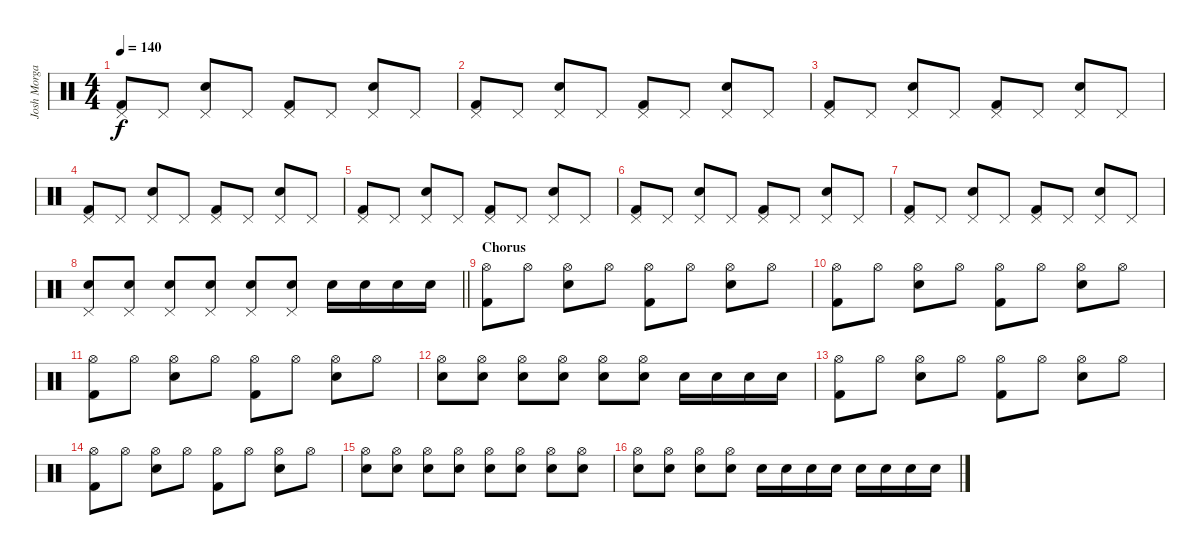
\track ("Josh Morgan" "Josh Morga") {instrument percussion}
\staff {score}
\articulation defaults
\ts (4 4)
\tempo 140
\clef neutral
\ks c
("Pedal Hi-Hat (hit)" "Kick (hit) 2").8{dy f} "Pedal Hi-Hat (hit)".8 ("Pedal Hi-Hat (hit)" "Electric Snare (hit)").8 "Pedal Hi-Hat (hit)".8 ("Pedal Hi-Hat (hit)" "Kick (hit) 2").8 "Pedal Hi-Hat (hit)".8 ("Pedal Hi-Hat (hit)" "Electric Snare (hit)").8 "Pedal Hi-Hat (hit)".8 |
("Pedal Hi-Hat (hit)" "Kick (hit) 2").8 "Pedal Hi-Hat (hit)".8 ("Pedal Hi-Hat (hit)" "Electric Snare (hit)").8 "Pedal Hi-Hat (hit)".8 ("Pedal Hi-Hat (hit)" "Kick (hit) 2").8 "Pedal Hi-Hat (hit)".8 ("Pedal Hi-Hat (hit)" "Electric Snare (hit)").8 "Pedal Hi-Hat (hit)".8 |
("Pedal Hi-Hat (hit)" "Kick (hit) 2").8 "Pedal Hi-Hat (hit)".8 ("Pedal Hi-Hat (hit)" "Electric Snare (hit)").8 "Pedal Hi-Hat (hit)".8 ("Pedal Hi-Hat (hit)" "Kick (hit) 2").8 "Pedal Hi-Hat (hit)".8 ("Pedal Hi-Hat (hit)" "Electric Snare (hit)").8 "Pedal Hi-Hat (hit)".8 |
("Pedal Hi-Hat (hit)" "Kick (hit) 2").8 "Pedal Hi-Hat (hit)".8 ("Pedal Hi-Hat (hit)" "Electric Snare (hit)").8 "Pedal Hi-Hat (hit)".8 ("Pedal Hi-Hat (hit)" "Kick (hit) 2").8 "Pedal Hi-Hat (hit)".8 ("Pedal Hi-Hat (hit)" "Electric Snare (hit)").8 "Pedal Hi-Hat (hit)".8 |
("Pedal Hi-Hat (hit)" "Kick (hit) 2").8 "Pedal Hi-Hat (hit)".8 ("Pedal Hi-Hat (hit)" "Electric Snare (hit)").8 "Pedal Hi-Hat (hit)".8 ("Pedal Hi-Hat (hit)" "Kick (hit) 2").8 "Pedal Hi-Hat (hit)".8 ("Pedal Hi-Hat (hit)" "Electric Snare (hit)").8 "Pedal Hi-Hat (hit)".8 |
("Pedal Hi-Hat (hit)" "Kick (hit) 2").8 "Pedal Hi-Hat (hit)".8 ("Pedal Hi-Hat (hit)" "Electric Snare (hit)").8 "Pedal Hi-Hat (hit)".8 ("Pedal Hi-Hat (hit)" "Kick (hit) 2").8 "Pedal Hi-Hat (hit)".8 ("Pedal Hi-Hat (hit)" "Electric Snare (hit)").8 "Pedal Hi-Hat (hit)".8 |
("Pedal Hi-Hat (hit)" "Kick (hit) 2").8 "Pedal Hi-Hat (hit)".8 ("Pedal Hi-Hat (hit)" "Electric Snare (hit)").8 "Pedal Hi-Hat (hit)".8 ("Pedal Hi-Hat (hit)" "Kick (hit) 2").8 "Pedal Hi-Hat (hit)".8 ("Pedal Hi-Hat (hit)" "Electric Snare (hit)").8 "Pedal Hi-Hat (hit)".8 |
\barLineRight lightlight
("Pedal Hi-Hat (hit)" "Electric Snare (hit)").8 ("Pedal Hi-Hat (hit)" "Electric Snare (hit)").8 ("Pedal Hi-Hat (hit)" "Electric Snare (hit)").8 ("Pedal Hi-Hat (hit)" "Electric Snare (hit)").8 ("Pedal Hi-Hat (hit)" "Electric Snare (hit)").8 ("Pedal Hi-Hat (hit)" "Electric Snare (hit)").8 "Electric Snare (hit)".16 "Electric Snare (hit)".16 "Electric Snare (hit)".16 "Electric Snare (hit)".16 |
\section ("" "Chorus")
("Hi-Hat (open)" "Kick (hit) 2").8 "Hi-Hat (open)".8 ("Hi-Hat (open)" "Electric Snare (hit)").8 "Hi-Hat (open)".8 ("Hi-Hat (open)" "Kick (hit) 2").8 "Hi-Hat (open)".8 ("Hi-Hat (open)" "Electric Snare (hit)").8 "Hi-Hat (open)".8 |
("Hi-Hat (open)" "Kick (hit) 2").8 "Hi-Hat (open)".8 ("Hi-Hat (open)" "Electric Snare (hit)").8 "Hi-Hat (open)".8 ("Hi-Hat (open)" "Kick (hit) 2").8 "Hi-Hat (open)".8 ("Hi-Hat (open)" "Electric Snare (hit)").8 "Hi-Hat (open)".8 |
("Hi-Hat (open)" "Kick (hit) 2").8 "Hi-Hat (open)".8 ("Hi-Hat (open)" "Electric Snare (hit)").8 "Hi-Hat (open)".8 ("Hi-Hat (open)" "Kick (hit) 2").8 "Hi-Hat (open)".8 ("Hi-Hat (open)" "Electric Snare (hit)").8 "Hi-Hat (open)".8 |
("Hi-Hat (open)" "Electric Snare (hit)").8 ("Hi-Hat (open)" "Electric Snare (hit)").8 ("Hi-Hat (open)" "Electric Snare (hit)").8 ("Hi-Hat (open)" "Electric Snare (hit)").8 ("Hi-Hat (open)" "Electric Snare (hit)").8 ("Hi-Hat (open)" "Electric Snare (hit)").8 "Electric Snare (hit)".16 "Electric Snare (hit)".16 "Electric Snare (hit)".16 "Electric Snare (hit)".16 |
("Hi-Hat (open)" "Kick (hit) 2").8 "Hi-Hat (open)".8 ("Hi-Hat (open)" "Electric Snare (hit)").8 "Hi-Hat (open)".8 ("Hi-Hat (open)" "Kick (hit) 2").8 "Hi-Hat (open)".8 ("Hi-Hat (open)" "Electric Snare (hit)").8 "Hi-Hat (open)".8 |
("Hi-Hat (open)" "Kick (hit) 2").8 "Hi-Hat (open)".8 ("Hi-Hat (open)" "Electric Snare (hit)").8 "Hi-Hat (open)".8 ("Hi-Hat (open)" "Kick (hit) 2").8 "Hi-Hat (open)".8 ("Hi-Hat (open)" "Electric Snare (hit)").8 "Hi-Hat (open)".8 |
("Hi-Hat (open)" "Electric Snare (hit)").8 ("Hi-Hat (open)" "Electric Snare (hit)").8 ("Hi-Hat (open)" "Electric Snare (hit)").8 ("Hi-Hat (open)" "Electric Snare (hit)").8 ("Hi-Hat (open)" "Electric Snare (hit)").8 ("Hi-Hat (open)" "Electric Snare (hit)").8 ("Hi-Hat (open)" "Electric Snare (hit)").8 ("Hi-Hat (open)" "Electric Snare (hit)").8 |
("Hi-Hat (open)" "Electric Snare (hit)").8 ("Hi-Hat (open)" "Electric Snare (hit)").8 ("Hi-Hat (open)" "Electric Snare (hit)").8 ("Hi-Hat (open)" "Electric Snare (hit)").8 "Electric Snare (hit)".16 "Electric Snare (hit)".16 "Electric Snare (hit)".16 "Electric Snare (hit)".16 "Electric Snare (hit)".16 "Electric Snare (hit)".16 "Electric Snare (hit)".16 "Electric Snare (hit)".16
